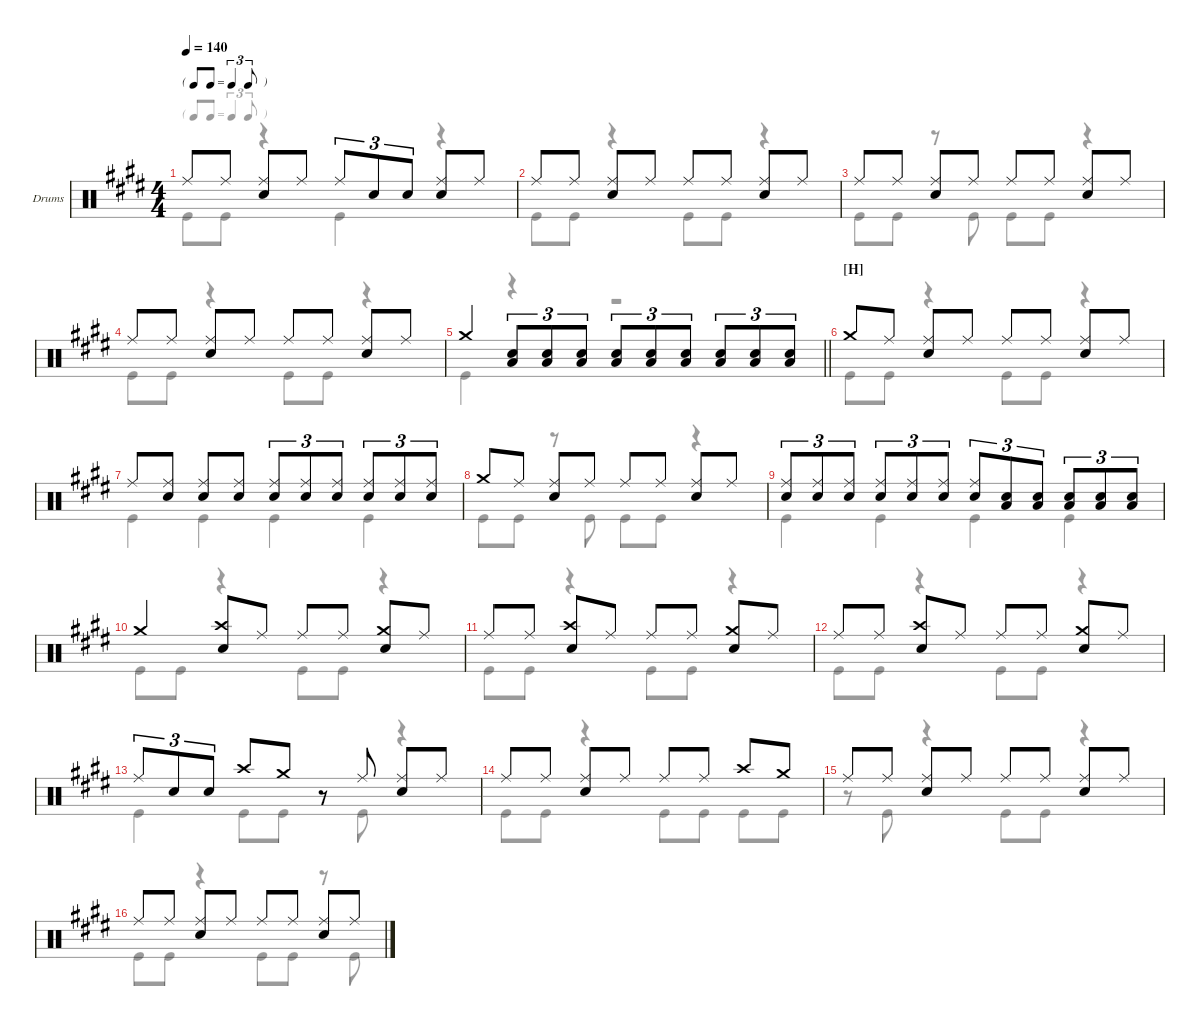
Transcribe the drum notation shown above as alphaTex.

\hideDynamics
\bracketExtendMode groupsimilarinstruments
\firstSystemTrackNameOrientation horizontal
\otherSystemsTrackNameOrientation horizontal
\track ("Drumkit" "Drums") {instrument percussion}
\staff {score}
\articulation defaults
\voice
\ts (4 4)
\tf triplet8th
\scale
0.306985
\tempo 140
\accidentals auto
\clef neutral
\ottava regular
\simile none
\ks e "Ride (middle)".8{dy f} "Ride (middle)".8
("Ride (middle)" "Snare (hit) 2").8 "Ride (middle)".8 "Ride (middle)".8{tu (3 2)} "Snare (hit) 2".8{tu (3 2)} "Snare (hit) 2".8{tu (3 2)} ("Ride (middle)" "Snare (hit) 2").8 "Ride (middle)".8 |
\scale
0.400525 "Ride (middle)".8 "Ride (middle)".8 ("Ride (middle)" "Snare (hit) 2").8 "Ride (middle)".8 "Ride (middle)".8 "Ride (middle)".8 ("Ride (middle)" "Snare (hit) 2").8 "Ride (middle)".8 |
\scale
0.295808 "Ride (middle)".8 "Ride (middle)".8 ("Ride (middle)" "Snare (hit) 2").8 "Ride (middle)".8 "Ride (middle)".8 "Ride (middle)".8 ("Ride (middle)" "Snare (hit) 2").8 "Ride (middle)".8 |
\scale
0.302586 "Ride (middle)".8 "Ride (middle)".8 ("Ride (middle)" "Snare (hit) 2").8 "Ride (middle)".8 "Ride (middle)".8 "Ride (middle)".8 ("Ride (middle)" "Snare (hit) 2").8 "Ride (middle)".8 |
\scale
0.386986
\barLineRight lightlight "Crash medium (hit)".4
("Snare (hit) 2" "Low Tom (hit)").8{tu (3 2)} ("Snare (hit) 2" "Low Tom (hit)").8{tu (3 2)} ("Snare (hit) 2" "Low Tom (hit)").8{tu (3 2)} ("Snare (hit) 2" "Low Tom (hit)").8{tu (3 2)} ("Snare (hit) 2" "Low Tom (hit)").8{tu (3 2)} ("Snare (hit) 2" "Low Tom (hit)").8{tu (3 2)} ("Snare (hit) 2" "Low Tom (hit)").8{tu (3 2)} ("Snare (hit) 2" "Low Tom (hit)").8{tu (3 2)} ("Snare (hit) 2" "Low Tom (hit)").8{tu (3 2)} |
\section ("H" "")
\scale
0.312238 "Crash medium (hit)".8 "Ride (middle)".8 ("Ride (middle)" "Snare (hit) 2").8 "Ride (middle)".8 "Ride (middle)".8 "Ride (middle)".8 ("Ride (middle)" "Snare (hit) 2").8 "Ride (middle)".8 |
\scale
0.301629 "Ride (middle)".8 ("Ride (middle)" "Snare (hit) 2").8 ("Ride (middle)" "Snare (hit) 2").8 ("Ride (middle)" "Snare (hit) 2").8 ("Ride (middle)" "Snare (hit) 2").8{tu (3 2)} ("Ride (middle)" "Snare (hit) 2").8{tu (3 2)} ("Ride (middle)" "Snare (hit) 2").8{tu (3 2)} ("Ride (middle)" "Snare (hit) 2").8{tu (3 2)} ("Ride (middle)" "Snare (hit) 2").8{tu (3 2)} ("Ride (middle)" "Snare (hit) 2").8{tu (3 2)} |
\scale
0.407843 "Crash medium (hit)".8 "Ride (middle)".8 ("Ride (middle)" "Snare (hit) 2").8 "Ride (middle)".8 "Ride (middle)".8 "Ride (middle)".8 ("Ride (middle)" "Snare (hit) 2").8 "Ride (middle)".8 |
\scale
0.28415 ("Ride (middle)" "Snare (hit) 2").8{tu (3 2)} ("Ride (middle)" "Snare (hit) 2").8{tu (3 2)} ("Ride (middle)" "Snare (hit) 2").8{tu (3 2)} ("Ride (middle)" "Snare (hit) 2").8{tu (3 2)} ("Ride (middle)" "Snare (hit) 2").8{tu (3 2)} ("Ride (middle)" "Snare (hit) 2").8{tu (3 2)} ("Ride (middle)" "Snare (hit) 2").8{tu (3 2)} ("Snare (hit) 2" "Low Tom (hit)").8{tu (3 2)} ("Snare (hit) 2" "Low Tom (hit)").8{tu (3 2)} ("Snare (hit) 2" "Low Tom (hit)").8{tu (3 2)} ("Snare (hit) 2" "Low Tom (hit)").8{tu (3 2)} ("Snare (hit) 2" "Low Tom (hit)").8{tu (3 2)} |
\scale
0.307199 "Crash medium (hit)".4 ("Crash high (hit)" "Snare (hit) 2").8 "Ride (middle)".8 "Ride (middle)".8 "Ride (middle)".8 ("Crash medium (hit)" "Snare (hit) 2").8 "Ride (middle)".8 |
\scale
0.386074 "Ride (middle)".8 "Ride (middle)".8 ("Crash high (hit)" "Snare (hit) 2").8 "Ride (middle)".8 "Ride (middle)".8 "Ride (middle)".8 ("Crash medium (hit)" "Snare (hit) 2").8 "Ride (middle)".8 |
\scale
0.305783 "Ride (middle)".8 "Ride (middle)".8 ("Crash high (hit)" "Snare (hit) 2").8 "Ride (middle)".8 "Ride (middle)".8 "Ride (middle)".8 ("Crash medium (hit)" "Snare (hit) 2").8 "Ride (middle)".8 |
\scale
0.311111 "Ride (middle)".8{tu (3 2)} "Snare (hit) 2".8{tu (3 2)} "Snare (hit) 2".8{tu (3 2)} "Crash high (hit)".8 "Crash medium (hit)".8 r.8 "Ride (middle)".8 ("Ride (middle)" "Snare (hit) 2").8 "Ride (middle)".8 |
\scale
0.395266 "Ride (middle)".8 "Ride (middle)".8 ("Ride (middle)" "Snare (hit) 2").8 "Ride (middle)".8 "Ride (middle)".8 "Ride (middle)".8 "Crash high (hit)".8 "Crash medium (hit)".8 |
\scale
0.297684 "Ride (middle)".8 "Ride (middle)".8 ("Ride (middle)" "Snare (hit) 2").8 "Ride (middle)".8 "Ride (middle)".8 "Ride (middle)".8 ("Ride (middle)" "Snare (hit) 2").8 "Ride (middle)".8 |
\scale
0.307645 "Ride (middle)".8 "Ride (middle)".8 ("Ride (middle)" "Snare (hit) 2").8 "Ride (middle)".8 "Ride (middle)".8 "Ride (middle)".8 ("Ride (middle)" "Snare (hit) 2").8 "Ride (middle)".8
\voice
\clef neutral
\ottava regular
\simile none
\ks e "Kick (hit)".8{dy mf} "Kick (hit)".8
r.4 "Kick (hit)".4 r.4 |
"Kick (hit)".8 "Kick (hit)".8 r.4 "Kick (hit)".8 "Kick (hit)".8 r.4 |
"Kick (hit)".8 "Kick (hit)".8 r.8 "Kick (hit)".8 "Kick (hit)".8 "Kick (hit)".8 r.4 |
"Kick (hit)".8 "Kick (hit)".8 r.4 "Kick (hit)".8 "Kick (hit)".8 r.4 |
\barLineRight lightlight "Kick (hit)".4
r.4 r.2 |
"Kick (hit)".8 "Kick (hit)".8 r.4 "Kick (hit)".8 "Kick (hit)".8 r.4 |
"Kick (hit)".4 "Kick (hit)".4 "Kick (hit)".4 "Kick (hit)".4 |
"Kick (hit)".8 "Kick (hit)".8 r.8 "Kick (hit)".8 "Kick (hit)".8 "Kick (hit)".8 r.4 |
"Kick (hit)".4 "Kick (hit)".4 "Kick (hit)".4 "Kick (hit)".4 |
"Kick (hit)".8 "Kick (hit)".8 r.4 "Kick (hit)".8 "Kick (hit)".8 r.4 |
"Kick (hit)".8 "Kick (hit)".8 r.4 "Kick (hit)".8 "Kick (hit)".8 r.4 |
"Kick (hit)".8 "Kick (hit)".8 r.4 "Kick (hit)".8 "Kick (hit)".8 r.4 |
"Kick (hit)".4 "Kick (hit)".8 "Kick (hit)".8 r.8 "Kick (hit)".8 r.4 |
"Kick (hit)".8 "Kick (hit)".8 r.4 "Kick (hit)".8 "Kick (hit)".8 "Kick (hit)".8 "Kick (hit)".8 |
r.8 "Kick (hit)".8 r.4 "Kick (hit)".8 "Kick (hit)".8 r.4 |
"Kick (hit)".8 "Kick (hit)".8 r.4 "Kick (hit)".8 "Kick (hit)".8 r.8 "Kick (hit)".8
